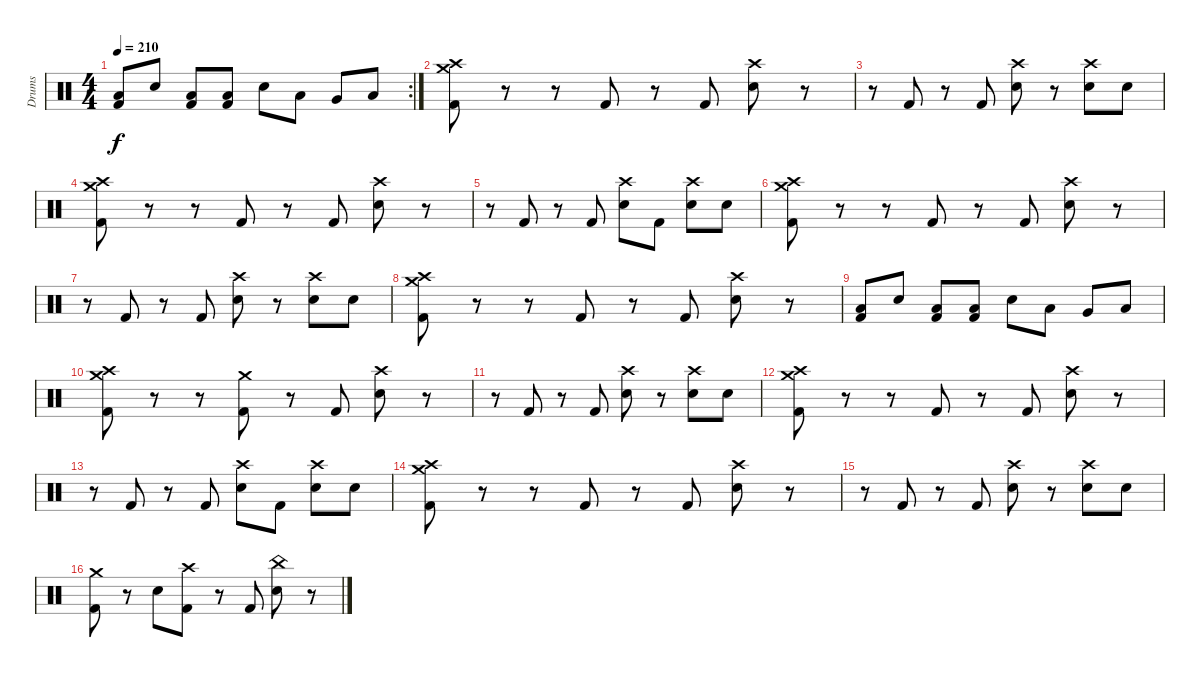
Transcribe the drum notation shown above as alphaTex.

\track ("Drums" "Drums") {instrument percussion}
\staff {score}
\articulation defaults
\rc 2
\ts (4 4)
\tempo 210
\clef neutral
\ks c
("Low Floor Tom (hit)" "Kick (hit) 2").8{dy f} "Electric Snare (hit)".8 ("Low Floor Tom (hit)" "Kick (hit) 2").8 ("Low Floor Tom (hit)" "Kick (hit) 2").8 "Electric Snare (hit)".8 "Low Tom (hit)".8 "Very Low Tom (hit)".8 "Low Floor Tom (hit)".8 |
("Crash high (hit)" "Crash medium (hit)" "Kick (hit) 2").8 r.8 r.8 "Kick (hit) 2".8 r.8 "Kick (hit) 2".8 ("Crash high (hit)" "Electric Snare (hit)").8 r.8 |
r.8 "Kick (hit) 2".8 r.8 "Kick (hit) 2".8 ("Crash high (hit)" "Electric Snare (hit)").8 r.8 ("Crash high (hit)" "Electric Snare (hit)").8 "Electric Snare (hit)".8 |
("Crash high (hit)" "Crash medium (hit)" "Kick (hit) 2").8 r.8 r.8 "Kick (hit) 2".8 r.8 "Kick (hit) 2".8 ("Crash high (hit)" "Electric Snare (hit)").8 r.8 |
r.8 "Kick (hit) 2".8 r.8 "Kick (hit) 2".8 ("Crash high (hit)" "Electric Snare (hit)").8 "Kick (hit) 2".8 ("Crash high (hit)" "Electric Snare (hit)").8 "Electric Snare (hit)".8 |
("Crash high (hit)" "Crash medium (hit)" "Kick (hit) 2").8 r.8 r.8 "Kick (hit) 2".8 r.8 "Kick (hit) 2".8 ("Crash high (hit)" "Electric Snare (hit)").8 r.8 |
r.8 "Kick (hit) 2".8 r.8 "Kick (hit) 2".8 ("Crash high (hit)" "Electric Snare (hit)").8 r.8 ("Crash high (hit)" "Electric Snare (hit)").8 "Electric Snare (hit)".8 |
("Crash high (hit)" "Crash medium (hit)" "Kick (hit) 2").8 r.8 r.8 "Kick (hit) 2".8 r.8 "Kick (hit) 2".8 ("Crash high (hit)" "Electric Snare (hit)").8 r.8 |
("Low Floor Tom (hit)" "Kick (hit) 2").8 "Electric Snare (hit)".8 ("Low Floor Tom (hit)" "Kick (hit) 2").8 ("Low Floor Tom (hit)" "Kick (hit) 2").8 "Electric Snare (hit)".8 "Low Tom (hit)".8 "Very Low Tom (hit)".8 "Low Floor Tom (hit)".8 |
("Crash high (hit)" "Crash medium (hit)" "Kick (hit) 2").8 r.8 r.8 ("Crash medium (hit)" "Kick (hit) 2").8 r.8 "Kick (hit) 2".8 ("Crash high (hit)" "Electric Snare (hit)").8 r.8 |
r.8 "Kick (hit) 2".8 r.8 "Kick (hit) 2".8 ("Crash high (hit)" "Electric Snare (hit)").8 r.8 ("Crash high (hit)" "Electric Snare (hit)").8 "Electric Snare (hit)".8 |
("Crash high (hit)" "Crash medium (hit)" "Kick (hit) 2").8 r.8 r.8 "Kick (hit) 2".8 r.8 "Kick (hit) 2".8 ("Crash high (hit)" "Electric Snare (hit)").8 r.8 |
r.8 "Kick (hit) 2".8 r.8 "Kick (hit) 2".8 ("Crash high (hit)" "Electric Snare (hit)").8 "Kick (hit) 2".8 ("Crash high (hit)" "Electric Snare (hit)").8 "Electric Snare (hit)".8 |
("Crash high (hit)" "Crash medium (hit)" "Kick (hit) 2").8 r.8 r.8 "Kick (hit) 2".8 r.8 "Kick (hit) 2".8 ("Crash high (hit)" "Electric Snare (hit)").8 r.8 |
r.8 "Kick (hit) 2".8 r.8 "Kick (hit) 2".8 ("Crash high (hit)" "Electric Snare (hit)").8 r.8 ("Crash high (hit)" "Electric Snare (hit)").8 "Electric Snare (hit)".8 |
("Crash medium (hit)" "Kick (hit) 2").8 r.8 "Electric Snare (hit)".8 ("Crash high (hit)" "Kick (hit) 2").8 r.8 "Kick (hit) 2".8 ("China (hit)" "Electric Snare (hit)").8 r.8
